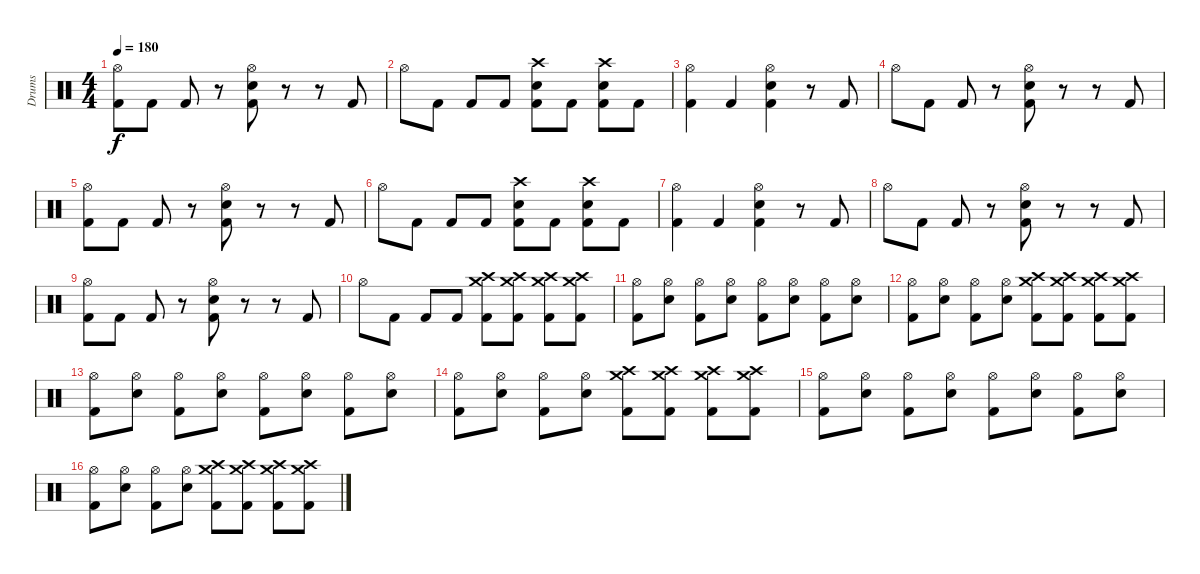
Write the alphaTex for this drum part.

\track ("Drums" "Drums") {instrument percussion}
\staff {score}
\articulation defaults
\ts (4 4)
\tempo 180
\clef neutral
\ks c
("Hi-Hat (open)" "Kick (hit) 2").8{dy f} "Kick (hit) 2".8 "Kick (hit) 2".8 r.8 ("Hi-Hat (open)" "Snare (hit) 2" "Kick (hit) 2").8 r.8 r.8 "Kick (hit) 2".8 |
"Hi-Hat (open)".8 "Kick (hit) 2".8 "Kick (hit) 2".8 "Kick (hit) 2".8 ("Crash high (hit)" "Snare (hit) 2" "Kick (hit) 2").8 "Kick (hit) 2".8 ("Crash high (hit)" "Snare (hit) 2" "Kick (hit) 2").8 "Kick (hit) 2".8 |
("Hi-Hat (open)" "Kick (hit) 2").4 "Kick (hit) 2".4 ("Hi-Hat (open)" "Snare (hit) 2" "Kick (hit) 2").4 r.8 "Kick (hit) 2".8 |
"Hi-Hat (open)".8 "Kick (hit) 2".8 "Kick (hit) 2".8 r.8 ("Hi-Hat (open)" "Snare (hit) 2" "Kick (hit) 2").8 r.8 r.8 "Kick (hit) 2".8 |
("Hi-Hat (open)" "Kick (hit) 2").8 "Kick (hit) 2".8 "Kick (hit) 2".8 r.8 ("Hi-Hat (open)" "Snare (hit) 2" "Kick (hit) 2").8 r.8 r.8 "Kick (hit) 2".8 |
"Hi-Hat (open)".8 "Kick (hit) 2".8 "Kick (hit) 2".8 "Kick (hit) 2".8 ("Crash high (hit)" "Snare (hit) 2" "Kick (hit) 2").8 "Kick (hit) 2".8 ("Crash high (hit)" "Snare (hit) 2" "Kick (hit) 2").8 "Kick (hit) 2".8 |
("Hi-Hat (open)" "Kick (hit) 2").4 "Kick (hit) 2".4 ("Hi-Hat (open)" "Snare (hit) 2" "Kick (hit) 2").4 r.8 "Kick (hit) 2".8 |
"Hi-Hat (open)".8 "Kick (hit) 2".8 "Kick (hit) 2".8 r.8 ("Hi-Hat (open)" "Snare (hit) 2" "Kick (hit) 2").8 r.8 r.8 "Kick (hit) 2".8 |
("Hi-Hat (open)" "Kick (hit) 2").8 "Kick (hit) 2".8 "Kick (hit) 2".8 r.8 ("Hi-Hat (open)" "Snare (hit) 2" "Kick (hit) 2").8 r.8 r.8 "Kick (hit) 2".8 |
"Hi-Hat (open)".8 "Kick (hit) 2".8 "Kick (hit) 2".8 "Kick (hit) 2".8 ("Crash high (hit)" "Crash medium (hit)" "Kick (hit) 2").8 ("Crash high (hit)" "Crash medium (hit)" "Kick (hit) 2").8 ("Crash high (hit)" "Crash medium (hit)" "Kick (hit) 2").8 ("Crash high (hit)" "Crash medium (hit)" "Kick (hit) 2").8 |
("Hi-Hat (open)" "Kick (hit) 2").8 ("Hi-Hat (open)" "Snare (hit) 2").8 ("Hi-Hat (open)" "Kick (hit) 2").8 ("Hi-Hat (open)" "Snare (hit) 2").8 ("Hi-Hat (open)" "Kick (hit) 2").8 ("Hi-Hat (open)" "Snare (hit) 2").8 ("Hi-Hat (open)" "Kick (hit) 2").8 ("Hi-Hat (open)" "Snare (hit) 2").8 |
("Hi-Hat (open)" "Kick (hit) 2").8 ("Hi-Hat (open)" "Snare (hit) 2").8 ("Hi-Hat (open)" "Kick (hit) 2").8 ("Hi-Hat (open)" "Snare (hit) 2").8 ("Crash high (hit)" "Crash medium (hit)" "Kick (hit) 2").8 ("Crash high (hit)" "Crash medium (hit)" "Kick (hit) 2").8 ("Crash high (hit)" "Crash medium (hit)" "Kick (hit) 2").8 ("Crash high (hit)" "Crash medium (hit)" "Kick (hit) 2").8 |
("Hi-Hat (open)" "Kick (hit) 2").8 ("Hi-Hat (open)" "Snare (hit) 2").8 ("Hi-Hat (open)" "Kick (hit) 2").8 ("Hi-Hat (open)" "Snare (hit) 2").8 ("Hi-Hat (open)" "Kick (hit) 2").8 ("Hi-Hat (open)" "Snare (hit) 2").8 ("Hi-Hat (open)" "Kick (hit) 2").8 ("Hi-Hat (open)" "Snare (hit) 2").8 |
("Hi-Hat (open)" "Kick (hit) 2").8 ("Hi-Hat (open)" "Snare (hit) 2").8 ("Hi-Hat (open)" "Kick (hit) 2").8 ("Hi-Hat (open)" "Snare (hit) 2").8 ("Crash high (hit)" "Crash medium (hit)" "Kick (hit) 2").8 ("Crash high (hit)" "Crash medium (hit)" "Kick (hit) 2").8 ("Crash high (hit)" "Crash medium (hit)" "Kick (hit) 2").8 ("Crash high (hit)" "Crash medium (hit)" "Kick (hit) 2").8 |
("Hi-Hat (open)" "Kick (hit) 2").8 ("Hi-Hat (open)" "Snare (hit) 2").8 ("Hi-Hat (open)" "Kick (hit) 2").8 ("Hi-Hat (open)" "Snare (hit) 2").8 ("Hi-Hat (open)" "Kick (hit) 2").8 ("Hi-Hat (open)" "Snare (hit) 2").8 ("Hi-Hat (open)" "Kick (hit) 2").8 ("Hi-Hat (open)" "Snare (hit) 2").8 |
("Hi-Hat (open)" "Kick (hit) 2").8 ("Hi-Hat (open)" "Snare (hit) 2").8 ("Hi-Hat (open)" "Kick (hit) 2").8 ("Hi-Hat (open)" "Snare (hit) 2").8 ("Crash high (hit)" "Crash medium (hit)" "Kick (hit) 2").8 ("Crash high (hit)" "Crash medium (hit)" "Kick (hit) 2").8 ("Crash high (hit)" "Crash medium (hit)" "Kick (hit) 2").8 ("Crash high (hit)" "Crash medium (hit)" "Kick (hit) 2").8
